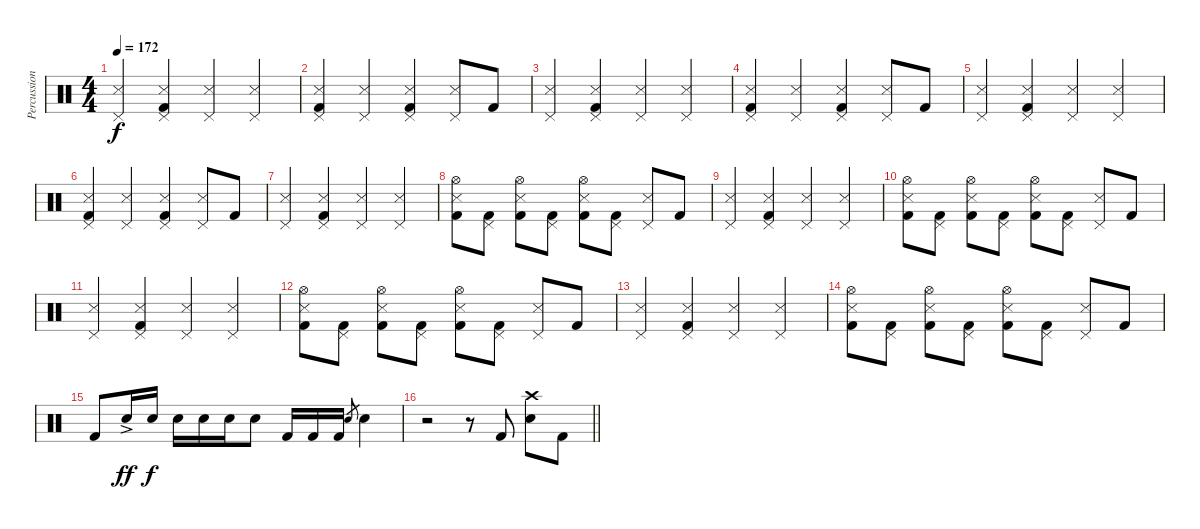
\track ("Percussion" "Percussion") {instrument percussion}
\staff {score}
\articulation defaults
\ts (4 4)
\tempo 172
\clef neutral
\ks aminor
("Pedal Hi-Hat (hit)" "Snare (side stick) 3").4{dy f} ("Pedal Hi-Hat (hit)" "Snare (side stick) 3" "Kick (hit) 2").4 ("Pedal Hi-Hat (hit)" "Snare (side stick) 3").4 ("Pedal Hi-Hat (hit)" "Snare (side stick) 3").4 |
("Pedal Hi-Hat (hit)" "Snare (side stick) 3" "Kick (hit) 2").4 ("Pedal Hi-Hat (hit)" "Snare (side stick) 3").4 ("Pedal Hi-Hat (hit)" "Snare (side stick) 3" "Kick (hit) 2").4 ("Pedal Hi-Hat (hit)" "Snare (side stick) 3").8 "Kick (hit) 2".8 |
("Pedal Hi-Hat (hit)" "Snare (side stick) 3").4 ("Pedal Hi-Hat (hit)" "Snare (side stick) 3" "Kick (hit) 2").4 ("Pedal Hi-Hat (hit)" "Snare (side stick) 3").4 ("Pedal Hi-Hat (hit)" "Snare (side stick) 3").4 |
("Pedal Hi-Hat (hit)" "Snare (side stick) 3" "Kick (hit) 2").4 ("Pedal Hi-Hat (hit)" "Snare (side stick) 3").4 ("Pedal Hi-Hat (hit)" "Snare (side stick) 3" "Kick (hit) 2").4 ("Pedal Hi-Hat (hit)" "Snare (side stick) 3").8 "Kick (hit) 2".8 |
("Pedal Hi-Hat (hit)" "Snare (side stick) 3").4 ("Pedal Hi-Hat (hit)" "Snare (side stick) 3" "Kick (hit) 2").4 ("Pedal Hi-Hat (hit)" "Snare (side stick) 3").4 ("Pedal Hi-Hat (hit)" "Snare (side stick) 3").4 |
("Pedal Hi-Hat (hit)" "Snare (side stick) 3" "Kick (hit) 2").4 ("Pedal Hi-Hat (hit)" "Snare (side stick) 3").4 ("Pedal Hi-Hat (hit)" "Snare (side stick) 3" "Kick (hit) 2").4 ("Pedal Hi-Hat (hit)" "Snare (side stick) 3").8 "Kick (hit) 2".8 |
("Pedal Hi-Hat (hit)" "Snare (side stick) 3").4 ("Pedal Hi-Hat (hit)" "Snare (side stick) 3" "Kick (hit) 2").4 ("Pedal Hi-Hat (hit)" "Snare (side stick) 3").4 ("Pedal Hi-Hat (hit)" "Snare (side stick) 3").4 |
("Hi-Hat (open)" "Snare (side stick) 3" "Kick (hit) 2").8 ("Pedal Hi-Hat (hit)" "Kick (hit) 2").8 ("Hi-Hat (open)" "Snare (side stick) 3" "Kick (hit) 2").8 ("Pedal Hi-Hat (hit)" "Kick (hit) 2").8 ("Hi-Hat (open)" "Snare (side stick) 3" "Kick (hit) 2").8 ("Pedal Hi-Hat (hit)" "Kick (hit) 2").8 ("Pedal Hi-Hat (hit)" "Snare (side stick) 3").8 "Kick (hit) 2".8 |
("Pedal Hi-Hat (hit)" "Snare (side stick) 3").4 ("Pedal Hi-Hat (hit)" "Snare (side stick) 3" "Kick (hit) 2").4 ("Pedal Hi-Hat (hit)" "Snare (side stick) 3").4 ("Pedal Hi-Hat (hit)" "Snare (side stick) 3").4 |
("Hi-Hat (open)" "Snare (side stick) 3" "Kick (hit) 2").8 ("Pedal Hi-Hat (hit)" "Kick (hit) 2").8 ("Hi-Hat (open)" "Snare (side stick) 3" "Kick (hit) 2").8 ("Pedal Hi-Hat (hit)" "Kick (hit) 2").8 ("Hi-Hat (open)" "Snare (side stick) 3" "Kick (hit) 2").8 ("Pedal Hi-Hat (hit)" "Kick (hit) 2").8 ("Pedal Hi-Hat (hit)" "Snare (side stick) 3").8 "Kick (hit) 2".8 |
("Pedal Hi-Hat (hit)" "Snare (side stick) 3").4 ("Pedal Hi-Hat (hit)" "Snare (side stick) 3" "Kick (hit) 2").4 ("Pedal Hi-Hat (hit)" "Snare (side stick) 3").4 ("Pedal Hi-Hat (hit)" "Snare (side stick) 3").4 |
("Hi-Hat (open)" "Snare (side stick) 3" "Kick (hit) 2").8 ("Pedal Hi-Hat (hit)" "Kick (hit) 2").8 ("Hi-Hat (open)" "Snare (side stick) 3" "Kick (hit) 2").8 ("Pedal Hi-Hat (hit)" "Kick (hit) 2").8 ("Hi-Hat (open)" "Snare (side stick) 3" "Kick (hit) 2").8 ("Pedal Hi-Hat (hit)" "Kick (hit) 2").8 ("Pedal Hi-Hat (hit)" "Snare (side stick) 3").8 "Kick (hit) 2".8 |
("Pedal Hi-Hat (hit)" "Snare (side stick) 3").4 ("Pedal Hi-Hat (hit)" "Snare (side stick) 3" "Kick (hit) 2").4 ("Pedal Hi-Hat (hit)" "Snare (side stick) 3").4 ("Pedal Hi-Hat (hit)" "Snare (side stick) 3").4 |
("Hi-Hat (open)" "Snare (side stick) 3" "Kick (hit) 2").8 ("Pedal Hi-Hat (hit)" "Kick (hit) 2").8 ("Hi-Hat (open)" "Snare (side stick) 3" "Kick (hit) 2").8 ("Pedal Hi-Hat (hit)" "Kick (hit) 2").8 ("Hi-Hat (open)" "Snare (side stick) 3" "Kick (hit) 2").8 ("Pedal Hi-Hat (hit)" "Kick (hit) 2").8 ("Pedal Hi-Hat (hit)" "Snare (side stick) 3").8 "Kick (hit) 2".8 |
"Kick (hit) 2".8 "Electric Snare (hit)"{ac}.16{dy ff} "Electric Snare (hit)".16{dy f} "Electric Snare (hit)".16 "Electric Snare (hit)".16 "Electric Snare (hit)".16 "Electric Snare (hit)".8 "Kick (hit) 2".16 "Kick (hit) 2".16 "Kick (hit) 2".16 "Electric Snare (hit)".8{gr} "Electric Snare (hit)".4 |
\barLineRight lightlight
r.2 r.8 "Kick (hit) 2".8{volume 14} ("Crash high (hit)" "Electric Snare (hit)").8 "Kick (hit) 2".8
